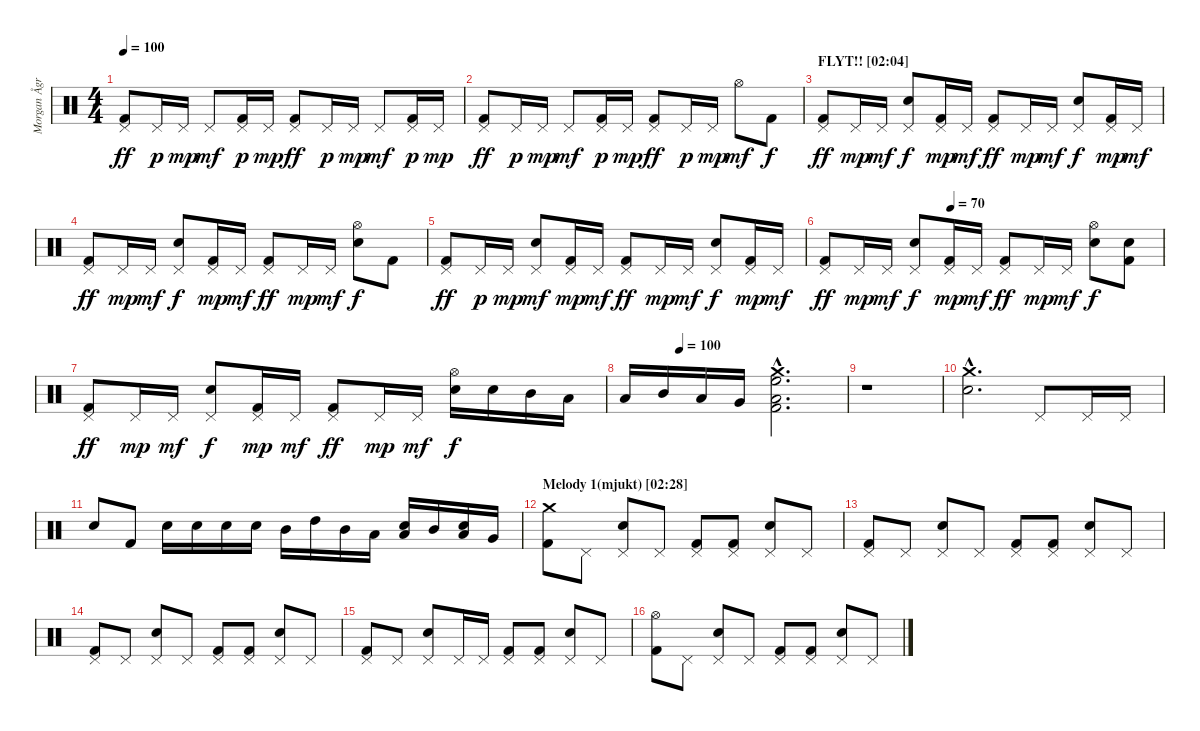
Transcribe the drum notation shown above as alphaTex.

\track ("Morgan Ågren" "Morgan Ågr") {instrument percussion}
\staff {score}
\articulation defaults
\ts (4 4)
\tempo 100
\clef neutral
\ks c
("Pedal Hi-Hat (hit)" "Kick (hit) 2").8{dy ff} "Pedal Hi-Hat (hit)".16{dy p} "Pedal Hi-Hat (hit)".16{dy mp} "Pedal Hi-Hat (hit)".8{dy mf} ("Pedal Hi-Hat (hit)" "Kick (hit) 2").16{dy p} "Pedal Hi-Hat (hit)".16{dy mp} ("Pedal Hi-Hat (hit)" "Kick (hit) 2").8{dy ff} "Pedal Hi-Hat (hit)".16{dy p} "Pedal Hi-Hat (hit)".16{dy mp} "Pedal Hi-Hat (hit)".8{dy mf} ("Pedal Hi-Hat (hit)" "Kick (hit) 2").16{dy p} "Pedal Hi-Hat (hit)".16{dy mp} |
("Pedal Hi-Hat (hit)" "Kick (hit) 2").8{dy ff} "Pedal Hi-Hat (hit)".16{dy p} "Pedal Hi-Hat (hit)".16{dy mp} "Pedal Hi-Hat (hit)".8{dy mf} ("Pedal Hi-Hat (hit)" "Kick (hit) 2").16{dy p} "Pedal Hi-Hat (hit)".16{dy mp} ("Pedal Hi-Hat (hit)" "Kick (hit) 2").8{dy ff} "Pedal Hi-Hat (hit)".16{dy p} "Pedal Hi-Hat (hit)".16{dy mp} "Hi-Hat (open)".8{dy mf} "Kick (hit) 2".8{dy f} |
\section ("" "FLYT!! [02:04]")
("Pedal Hi-Hat (hit)" "Kick (hit) 2").8{dy ff} "Pedal Hi-Hat (hit)".16{dy mp} "Pedal Hi-Hat (hit)".16{dy mf} ("Pedal Hi-Hat (hit)" "Electric Snare (hit)").8{dy f} ("Pedal Hi-Hat (hit)" "Kick (hit) 2").16{dy mp} "Pedal Hi-Hat (hit)".16{dy mf} ("Pedal Hi-Hat (hit)" "Kick (hit) 2").8{dy ff} "Pedal Hi-Hat (hit)".16{dy mp} "Pedal Hi-Hat (hit)".16{dy mf} ("Pedal Hi-Hat (hit)" "Electric Snare (hit)").8{dy f} ("Pedal Hi-Hat (hit)" "Kick (hit) 2").16{dy mp} "Pedal Hi-Hat (hit)".16{dy mf} |
("Pedal Hi-Hat (hit)" "Kick (hit) 2").8{dy ff} "Pedal Hi-Hat (hit)".16{dy mp} "Pedal Hi-Hat (hit)".16{dy mf} ("Pedal Hi-Hat (hit)" "Electric Snare (hit)").8{dy f} ("Pedal Hi-Hat (hit)" "Kick (hit) 2").16{dy mp} "Pedal Hi-Hat (hit)".16{dy mf} ("Pedal Hi-Hat (hit)" "Kick (hit) 2").8{dy ff} "Pedal Hi-Hat (hit)".16{dy mp} "Pedal Hi-Hat (hit)".16{dy mf} ("Hi-Hat (open)" "Electric Snare (hit)").8{dy f} "Kick (hit) 2".8 |
("Pedal Hi-Hat (hit)" "Kick (hit) 2").8{dy ff} "Pedal Hi-Hat (hit)".16{dy p} "Pedal Hi-Hat (hit)".16{dy mp} ("Pedal Hi-Hat (hit)" "Electric Snare (hit)").8{dy mf} ("Pedal Hi-Hat (hit)" "Kick (hit) 2").16{dy mp} "Pedal Hi-Hat (hit)".16{dy mf} ("Pedal Hi-Hat (hit)" "Kick (hit) 2").8{dy ff} "Pedal Hi-Hat (hit)".16{dy mp} "Pedal Hi-Hat (hit)".16{dy mf} ("Pedal Hi-Hat (hit)" "Electric Snare (hit)").8{dy f} ("Pedal Hi-Hat (hit)" "Kick (hit) 2").16{dy mp} "Pedal Hi-Hat (hit)".16{dy mf} |
\tempo (70 0.375)
("Pedal Hi-Hat (hit)" "Kick (hit) 2").8{dy ff} "Pedal Hi-Hat (hit)".16{dy mp} "Pedal Hi-Hat (hit)".16{dy mf} ("Pedal Hi-Hat (hit)" "Electric Snare (hit)").8{dy f} ("Pedal Hi-Hat (hit)" "Kick (hit) 2").16{dy mp} "Pedal Hi-Hat (hit)".16{dy mf} ("Pedal Hi-Hat (hit)" "Kick (hit) 2").8{dy ff} "Pedal Hi-Hat (hit)".16{dy mp} "Pedal Hi-Hat (hit)".16{dy mf} ("Hi-Hat (open)" "Electric Snare (hit)").8{dy f} ("Electric Snare (hit)" "Kick (hit) 2").8 |
("Pedal Hi-Hat (hit)" "Kick (hit) 2").8{dy ff} "Pedal Hi-Hat (hit)".16{dy mp} "Pedal Hi-Hat (hit)".16{dy mf} ("Pedal Hi-Hat (hit)" "Electric Snare (hit)").8{dy f} ("Pedal Hi-Hat (hit)" "Kick (hit) 2").16{dy mp} "Pedal Hi-Hat (hit)".16{dy mf} ("Pedal Hi-Hat (hit)" "Kick (hit) 2").8{dy ff} "Pedal Hi-Hat (hit)".16{dy mp} "Pedal Hi-Hat (hit)".16{dy mf} ("Hi-Hat (open)" "Electric Snare (hit)").16{dy f} "Electric Snare (hit)".16 "Mid Tom (hit)".16 "Low Tom (hit)".16 |
\tempo (100 0.25)
"Low Tom (hit)".16 "Mid Tom (hit)".16 "Low Tom (hit)".16 "Very Low Tom (hit)".16 ("Crash medium (hit)"{hac} "High Floor Tom (hit)"{hac} "Low Tom (hit)"{hac} "Kick (hit) 2"{hac}).2{d} |
r.1 |
("Crash medium (hit)"{hac} "Electric Snare (hit)"{hac}).2{d} "Pedal Hi-Hat (hit)".8 "Pedal Hi-Hat (hit)".16 "Pedal Hi-Hat (hit)".16 |
"Electric Snare (hit)".8 "Kick (hit) 2".8 "Electric Snare (hit)".16 "Electric Snare (hit)".16 "Electric Snare (hit)".16 "Electric Snare (hit)".16 "Mid Tom (hit)".16 "High Tom (hit)".16 "Mid Tom (hit)".16 "Low Tom (hit)".16 ("Electric Snare (hit)" "Low Tom (hit)").16 "Mid Tom (hit)".16 ("Electric Snare (hit)" "Low Tom (hit)").16 "Very Low Tom (hit)".16 |
\section ("" "Melody 1(mjukt) [02:28]")
("Crash medium (hit)" "Kick (hit) 2").8 "Pedal Hi-Hat (hit)".8 ("Pedal Hi-Hat (hit)" "Electric Snare (hit)").8 "Pedal Hi-Hat (hit)".8 ("Pedal Hi-Hat (hit)" "Kick (hit) 2").8 ("Pedal Hi-Hat (hit)" "Kick (hit) 2").8 ("Pedal Hi-Hat (hit)" "Electric Snare (hit)").8 "Pedal Hi-Hat (hit)".8 |
("Pedal Hi-Hat (hit)" "Kick (hit) 2").8 "Pedal Hi-Hat (hit)".8 ("Pedal Hi-Hat (hit)" "Electric Snare (hit)").8 "Pedal Hi-Hat (hit)".8 ("Pedal Hi-Hat (hit)" "Kick (hit) 2").8 ("Pedal Hi-Hat (hit)" "Kick (hit) 2").8 ("Pedal Hi-Hat (hit)" "Electric Snare (hit)").8 "Pedal Hi-Hat (hit)".8 |
("Pedal Hi-Hat (hit)" "Kick (hit) 2").8 "Pedal Hi-Hat (hit)".8 ("Pedal Hi-Hat (hit)" "Electric Snare (hit)").8 "Pedal Hi-Hat (hit)".8 ("Pedal Hi-Hat (hit)" "Kick (hit) 2").8 ("Pedal Hi-Hat (hit)" "Kick (hit) 2").8 ("Pedal Hi-Hat (hit)" "Electric Snare (hit)").8 "Pedal Hi-Hat (hit)".8 |
("Pedal Hi-Hat (hit)" "Kick (hit) 2").8 "Pedal Hi-Hat (hit)".8 ("Pedal Hi-Hat (hit)" "Electric Snare (hit)").8 "Pedal Hi-Hat (hit)".16 "Pedal Hi-Hat (hit)".16 ("Pedal Hi-Hat (hit)" "Kick (hit) 2").8 ("Pedal Hi-Hat (hit)" "Kick (hit) 2").8 ("Pedal Hi-Hat (hit)" "Electric Snare (hit)").8 "Pedal Hi-Hat (hit)".8 |
("Hi-Hat (open)" "Kick (hit) 2").8 "Pedal Hi-Hat (hit)".8 ("Pedal Hi-Hat (hit)" "Electric Snare (hit)").8 "Pedal Hi-Hat (hit)".8 ("Pedal Hi-Hat (hit)" "Kick (hit) 2").8 ("Pedal Hi-Hat (hit)" "Kick (hit) 2").8 ("Pedal Hi-Hat (hit)" "Electric Snare (hit)").8 "Pedal Hi-Hat (hit)".8
